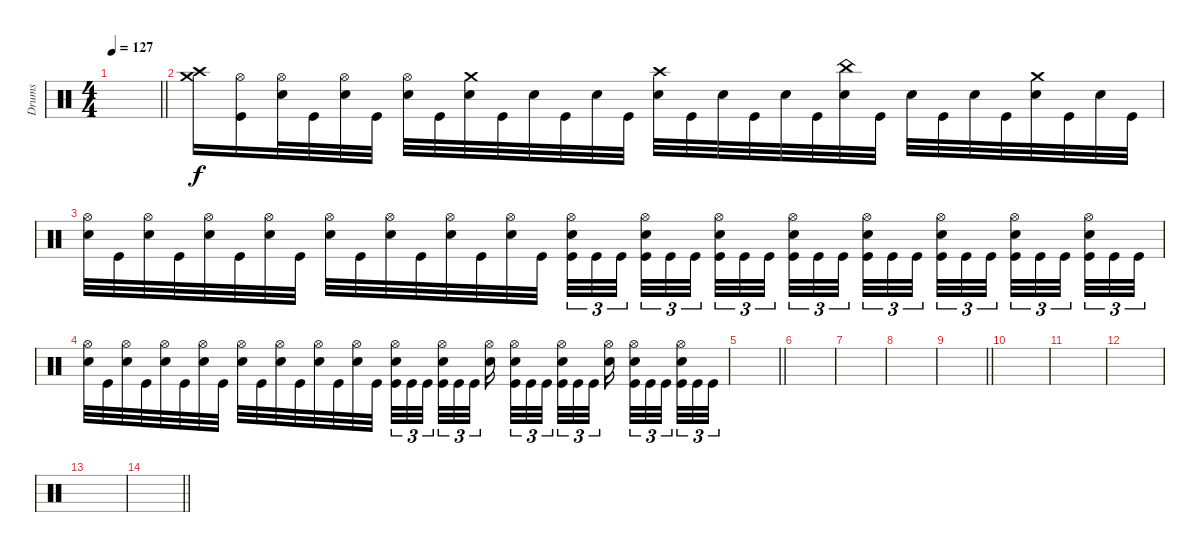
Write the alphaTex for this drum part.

\track ("Drums" "Drums") {instrument percussion}
\staff
\articulation defaults
\ts (4 4)
\tempo 127
\clef neutral
\barLineRight lightlight
\ks c
|
("Crash high (hit)" "Crash medium (hit)").16 ("Hi-Hat (open)" "Kick (hit)").16 ("Hi-Hat (open)" "Electric Snare (hit)").32 "Kick (hit)".32 ("Hi-Hat (open)" "Electric Snare (hit)").32 "Kick (hit)".32 ("Hi-Hat (open)" "Electric Snare (hit)").32 "Kick (hit)".32 ("Crash medium (hit)" "Electric Snare (hit)").32 "Kick (hit)".32 "Electric Snare (hit)".32 "Kick (hit)".32 "Electric Snare (hit)".32 "Kick (hit)".32 ("Crash high (hit)" "Electric Snare (hit)").32 "Kick (hit)".32 "Electric Snare (hit)".32 "Kick (hit)".32 "Electric Snare (hit)".32 "Kick (hit)".32 ("China (hit)" "Electric Snare (hit)").32 "Kick (hit)".32 "Electric Snare (hit)".32 "Kick (hit)".32 "Electric Snare (hit)".32 "Kick (hit)".32 ("Crash medium (hit)" "Electric Snare (hit)").32 "Kick (hit)".32 "Electric Snare (hit)".32 "Kick (hit)".32 |
("Hi-Hat (open)" "Electric Snare (hit)").32 "Kick (hit)".32 ("Hi-Hat (open)" "Electric Snare (hit)").32 "Kick (hit)".32 ("Hi-Hat (open)" "Electric Snare (hit)").32 "Kick (hit)".32 ("Hi-Hat (open)" "Electric Snare (hit)").32 "Kick (hit)".32 ("Hi-Hat (open)" "Electric Snare (hit)").32 "Kick (hit)".32 ("Hi-Hat (open)" "Electric Snare (hit)").32 "Kick (hit)".32 ("Hi-Hat (open)" "Electric Snare (hit)").32 "Kick (hit)".32 ("Hi-Hat (open)" "Electric Snare (hit)").32 "Kick (hit)".32 ("Hi-Hat (open)" "Electric Snare (hit)" "Kick (hit)").32{tu (3 2)} "Kick (hit)".32{tu (3 2)} "Kick (hit)".32{tu (3 2) beam splitsecondary} ("Hi-Hat (open)" "Electric Snare (hit)" "Kick (hit)").32{tu (3 2)} "Kick (hit)".32{tu (3 2)} "Kick (hit)".32{tu (3 2) beam splitsecondary} ("Hi-Hat (open)" "Electric Snare (hit)" "Kick (hit)").32{tu (3 2)} "Kick (hit)".32{tu (3 2)} "Kick (hit)".32{tu (3 2) beam splitsecondary} ("Hi-Hat (open)" "Electric Snare (hit)" "Kick (hit)").32{tu (3 2)} "Kick (hit)".32{tu (3 2)} "Kick (hit)".32{tu (3 2)} ("Hi-Hat (open)" "Electric Snare (hit)" "Kick (hit)").32{tu (3 2)} "Kick (hit)".32{tu (3 2)} "Kick (hit)".32{tu (3 2) beam splitsecondary} ("Hi-Hat (open)" "Electric Snare (hit)" "Kick (hit)").32{tu (3 2)} "Kick (hit)".32{tu (3 2)} "Kick (hit)".32{tu (3 2) beam splitsecondary} ("Hi-Hat (open)" "Electric Snare (hit)" "Kick (hit)").32{tu (3 2)} "Kick (hit)".32{tu (3 2)} "Kick (hit)".32{tu (3 2) beam splitsecondary} ("Hi-Hat (open)" "Electric Snare (hit)" "Kick (hit)").32{tu (3 2)} "Kick (hit)".32{tu (3 2)} "Kick (hit)".32{tu (3 2)} |
("Hi-Hat (open)" "Electric Snare (hit)").32 "Kick (hit)".32 ("Hi-Hat (open)" "Electric Snare (hit)").32 "Kick (hit)".32 ("Hi-Hat (open)" "Electric Snare (hit)").32 "Kick (hit)".32 ("Hi-Hat (open)" "Electric Snare (hit)").32 "Kick (hit)".32 ("Hi-Hat (open)" "Electric Snare (hit)").32 "Kick (hit)".32 ("Hi-Hat (open)" "Electric Snare (hit)").32 "Kick (hit)".32 ("Hi-Hat (open)" "Electric Snare (hit)").32 "Kick (hit)".32 ("Hi-Hat (open)" "Electric Snare (hit)").32 "Kick (hit)".32 ("Hi-Hat (open)" "Electric Snare (hit)" "Kick (hit)").32{tu (3 2)} "Kick (hit)".32{tu (3 2)} "Kick (hit)".32{tu (3 2) beam splitsecondary} ("Hi-Hat (open)" "Electric Snare (hit)" "Kick (hit)").32{tu (3 2)} "Kick (hit)".32{tu (3 2)} "Kick (hit)".32{tu (3 2) beam splitsecondary} ("Hi-Hat (open)" "Electric Snare (hit)").16{beam splitsecondary} ("Hi-Hat (open)" "Electric Snare (hit)" "Kick (hit)").32{tu (3 2)} "Kick (hit)".32{tu (3 2)} "Kick (hit)".32{tu (3 2)} ("Hi-Hat (open)" "Electric Snare (hit)" "Kick (hit)").32{tu (3 2)} "Kick (hit)".32{tu (3 2)} "Kick (hit)".32{tu (3 2) beam splitsecondary} ("Hi-Hat (open)" "Electric Snare (hit)").16{beam splitsecondary} ("Hi-Hat (open)" "Electric Snare (hit)" "Kick (hit)").32{tu (3 2)} "Kick (hit)".32{tu (3 2)} "Kick (hit)".32{tu (3 2) beam splitsecondary} ("Hi-Hat (open)" "Electric Snare (hit)" "Kick (hit)").32{tu (3 2)} "Kick (hit)".32{tu (3 2)} "Kick (hit)".32{tu (3 2)} |
\barLineRight lightlight
|
|
|
|
\barLineRight lightlight
|
|
|
|
|
\barLineRight lightlight
